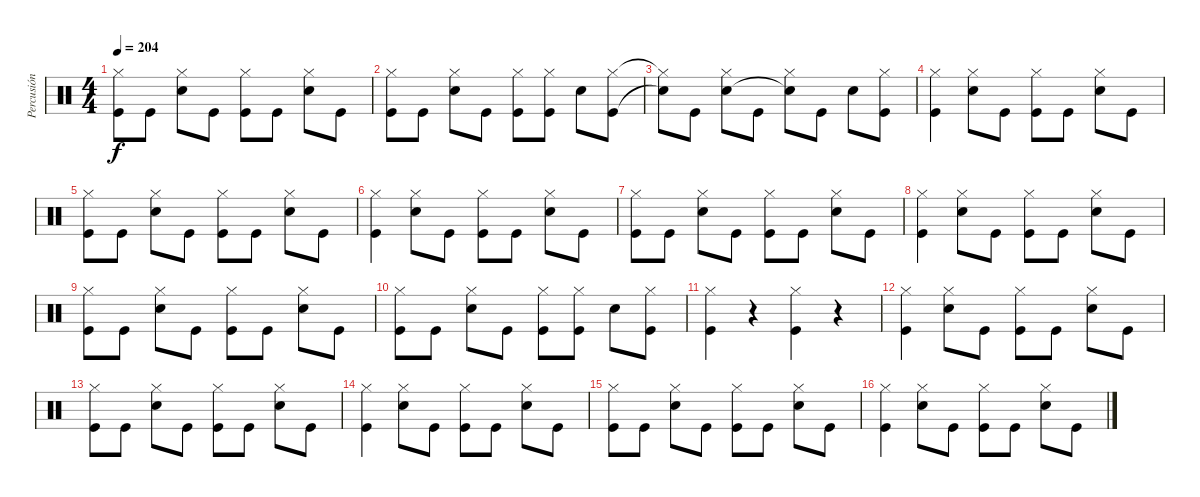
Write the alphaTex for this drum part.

\track ("Percusión" "Percusión") {instrument percussion}
\staff {score}
\articulation defaults
\ts (4 4)
\tempo 204
\clef neutral
\ks c
("Hi-Hat (closed)" "Kick (hit)").8{dy f} "Kick (hit)".8 ("Hi-Hat (closed)" "Snare (hit) 2").8 "Kick (hit)".8 ("Hi-Hat (closed)" "Kick (hit)").8 "Kick (hit)".8 ("Hi-Hat (closed)" "Snare (hit) 2").8 "Kick (hit)".8 |
("Hi-Hat (closed)" "Kick (hit)").8 "Kick (hit)".8 ("Hi-Hat (closed)" "Snare (hit) 2").8 "Kick (hit)".8 ("Hi-Hat (closed)" "Kick (hit)").8 ("Hi-Hat (closed)" "Kick (hit)").8 "Snare (hit) 2".8 ("Hi-Hat (closed)" "Kick (hit)").8 |
("Hi-Hat (closed)"{t} "Snare (hit)"{t}).8 "Kick (hit)".8 ("Hi-Hat (closed)" "Snare (hit) 2").8 "Kick (hit)".8 ("Hi-Hat (closed)" "Snare (hit)"{t}).8 "Kick (hit)".8 "Snare (hit) 2".8 ("Hi-Hat (closed)" "Kick (hit)").8 |
("Hi-Hat (closed)" "Kick (hit)").4 ("Hi-Hat (closed)" "Snare (hit) 2").8 "Kick (hit)".8 ("Hi-Hat (closed)" "Kick (hit)").8 "Kick (hit)".8 ("Hi-Hat (closed)" "Snare (hit) 2").8 "Kick (hit)".8 |
("Hi-Hat (closed)" "Kick (hit)").8 "Kick (hit)".8 ("Hi-Hat (closed)" "Snare (hit) 2").8 "Kick (hit)".8 ("Hi-Hat (closed)" "Kick (hit)").8 "Kick (hit)".8 ("Hi-Hat (closed)" "Snare (hit) 2").8 "Kick (hit)".8 |
("Hi-Hat (closed)" "Kick (hit)").4 ("Hi-Hat (closed)" "Snare (hit) 2").8 "Kick (hit)".8 ("Hi-Hat (closed)" "Kick (hit)").8 "Kick (hit)".8 ("Hi-Hat (closed)" "Snare (hit) 2").8 "Kick (hit)".8 |
("Hi-Hat (closed)" "Kick (hit)").8 "Kick (hit)".8 ("Hi-Hat (closed)" "Snare (hit) 2").8 "Kick (hit)".8 ("Hi-Hat (closed)" "Kick (hit)").8 "Kick (hit)".8 ("Hi-Hat (closed)" "Snare (hit) 2").8 "Kick (hit)".8 |
("Hi-Hat (closed)" "Kick (hit)").4 ("Hi-Hat (closed)" "Snare (hit) 2").8 "Kick (hit)".8 ("Hi-Hat (closed)" "Kick (hit)").8 "Kick (hit)".8 ("Hi-Hat (closed)" "Snare (hit) 2").8 "Kick (hit)".8 |
("Hi-Hat (closed)" "Kick (hit)").8 "Kick (hit)".8 ("Hi-Hat (closed)" "Snare (hit) 2").8 "Kick (hit)".8 ("Hi-Hat (closed)" "Kick (hit)").8 "Kick (hit)".8 ("Hi-Hat (closed)" "Snare (hit) 2").8 "Kick (hit)".8 |
("Hi-Hat (closed)" "Kick (hit)").8 "Kick (hit)".8 ("Hi-Hat (closed)" "Snare (hit) 2").8 "Kick (hit)".8 ("Hi-Hat (closed)" "Kick (hit)").8 ("Hi-Hat (closed)" "Kick (hit)").8 "Snare (hit) 2".8 ("Hi-Hat (closed)" "Kick (hit)").8 |
("Hi-Hat (closed)" "Kick (hit)").4 r.4 ("Hi-Hat (closed)" "Kick (hit)").4 r.4 |
("Hi-Hat (closed)" "Kick (hit)").4 ("Hi-Hat (closed)" "Snare (hit) 2").8 "Kick (hit)".8 ("Hi-Hat (closed)" "Kick (hit)").8 "Kick (hit)".8 ("Hi-Hat (closed)" "Snare (hit) 2").8 "Kick (hit)".8 |
("Hi-Hat (closed)" "Kick (hit)").8 "Kick (hit)".8 ("Hi-Hat (closed)" "Snare (hit) 2").8 "Kick (hit)".8 ("Hi-Hat (closed)" "Kick (hit)").8 "Kick (hit)".8 ("Hi-Hat (closed)" "Snare (hit) 2").8 "Kick (hit)".8 |
("Hi-Hat (closed)" "Kick (hit)").4 ("Hi-Hat (closed)" "Snare (hit) 2").8 "Kick (hit)".8 ("Hi-Hat (closed)" "Kick (hit)").8 "Kick (hit)".8 ("Hi-Hat (closed)" "Snare (hit) 2").8 "Kick (hit)".8 |
("Hi-Hat (closed)" "Kick (hit)").8 "Kick (hit)".8 ("Hi-Hat (closed)" "Snare (hit) 2").8 "Kick (hit)".8 ("Hi-Hat (closed)" "Kick (hit)").8 "Kick (hit)".8 ("Hi-Hat (closed)" "Snare (hit) 2").8 "Kick (hit)".8 |
("Hi-Hat (closed)" "Kick (hit)").4 ("Hi-Hat (closed)" "Snare (hit) 2").8 "Kick (hit)".8 ("Hi-Hat (closed)" "Kick (hit)").8 "Kick (hit)".8 ("Hi-Hat (closed)" "Snare (hit) 2").8 "Kick (hit)".8
